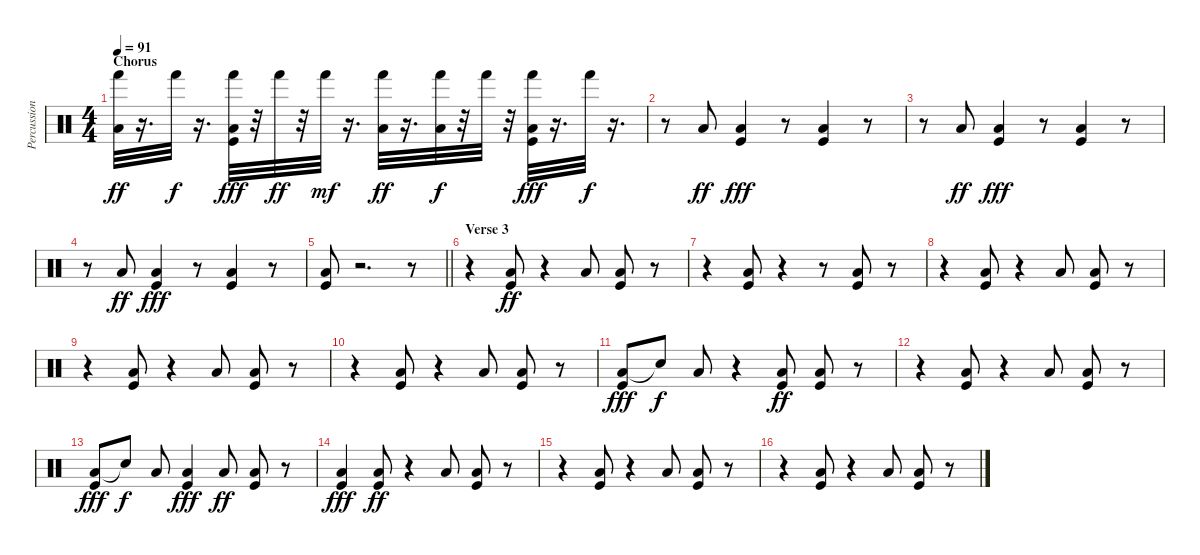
\track ("Percussion" "Percussion") {instrument percussion}
\staff {score}
\articulation defaults
\ts (4 4)
\section ("" "Chorus")
\tempo 91
\clef neutral
\ks c
("Hand (hit)" "Low Floor Tom (hit)").32{dy ff} r.16{d} "Hand (hit)".32{dy f} r.16{d} ("Hand (hit)" "Low Floor Tom (hit)" "Kick (hit)").32{dy fff} r.32 "Hand (hit)".32{dy ff} r.32 "Hand (hit)".32{dy mf} r.16{d} ("Hand (hit)" "Low Floor Tom (hit)").32{dy ff} r.16{d} ("Hand (hit)" "Low Tom (hit)").32{dy f} r.32 "Hand (hit)".32 r.32 ("Hand (hit)" "Low Floor Tom (hit)" "Kick (hit)").32{dy fff} r.16{d} "Hand (hit)".32{dy f} r.16{d} |
r.8 "Low Tom (hit)".8{dy ff} ("Low Floor Tom (hit)" "Kick (hit)").4{dy fff} r.8 ("Low Floor Tom (hit)" "Kick (hit)").4 r.8 |
r.8 "Low Tom (hit)".8{dy ff} ("Low Floor Tom (hit)" "Kick (hit)").4{dy fff} r.8 ("Low Floor Tom (hit)" "Kick (hit)").4 r.8 |
r.8 "Low Tom (hit)".8{dy ff} ("Low Floor Tom (hit)" "Kick (hit)").4{dy fff} r.8 ("Low Floor Tom (hit)" "Kick (hit)").4 r.8 |
\barLineRight lightlight
("Low Floor Tom (hit)" "Kick (hit)").8 r.2{d} r.8 |
\section ("" "Verse 3")
r.4 ("Low Floor Tom (hit)" "Kick (hit)").8{dy ff} r.4 "Low Tom (hit)".8 ("Low Floor Tom (hit)" "Kick (hit)").8 r.8 |
r.4 ("Low Floor Tom (hit)" "Kick (hit)").8 r.4 r.8 ("Low Floor Tom (hit)" "Kick (hit)").8 r.8 |
r.4 ("Low Floor Tom (hit)" "Kick (hit)").8 r.4 "Low Tom (hit)".8 ("Low Floor Tom (hit)" "Kick (hit)").8 r.8 |
r.4 ("Low Floor Tom (hit)" "Kick (hit)").8 r.4 "Low Tom (hit)".8 ("Low Floor Tom (hit)" "Kick (hit)").8 r.8 |
r.4 ("Low Floor Tom (hit)" "Kick (hit)").8 r.4 "Low Tom (hit)".8 ("Low Floor Tom (hit)" "Kick (hit)").8 r.8 |
("Low Floor Tom (hit)" "Kick (hit)").8{dy fff} "Snare (hit)"{t}.8{dy f} "Low Floor Tom (hit)".8 r.4 ("Low Tom (hit)" "Kick (hit)").8{dy ff} ("Low Floor Tom (hit)" "Kick (hit)").8 r.8 |
r.4 ("Low Floor Tom (hit)" "Kick (hit)").8 r.4 "Low Tom (hit)".8 ("Low Floor Tom (hit)" "Kick (hit)").8 r.8 |
("Low Floor Tom (hit)" "Kick (hit)").8{dy fff} "Snare (hit)"{t}.8{dy f} "Low Floor Tom (hit)".8 ("Low Floor Tom (hit)" "Kick (hit)").4{dy fff} "Low Tom (hit)".8{dy ff} ("Low Floor Tom (hit)" "Kick (hit)").8 r.8 |
("Low Floor Tom (hit)" "Kick (hit)").4{dy fff} ("Low Floor Tom (hit)" "Kick (hit)").8{dy ff} r.4 "Low Tom (hit)".8 ("Low Floor Tom (hit)" "Kick (hit)").8 r.8 |
r.4 ("Low Floor Tom (hit)" "Kick (hit)").8 r.4 "Low Tom (hit)".8 ("Low Floor Tom (hit)" "Kick (hit)").8 r.8 |
r.4 ("Low Floor Tom (hit)" "Kick (hit)").8 r.4 "Low Tom (hit)".8 ("Low Floor Tom (hit)" "Kick (hit)").8 r.8
